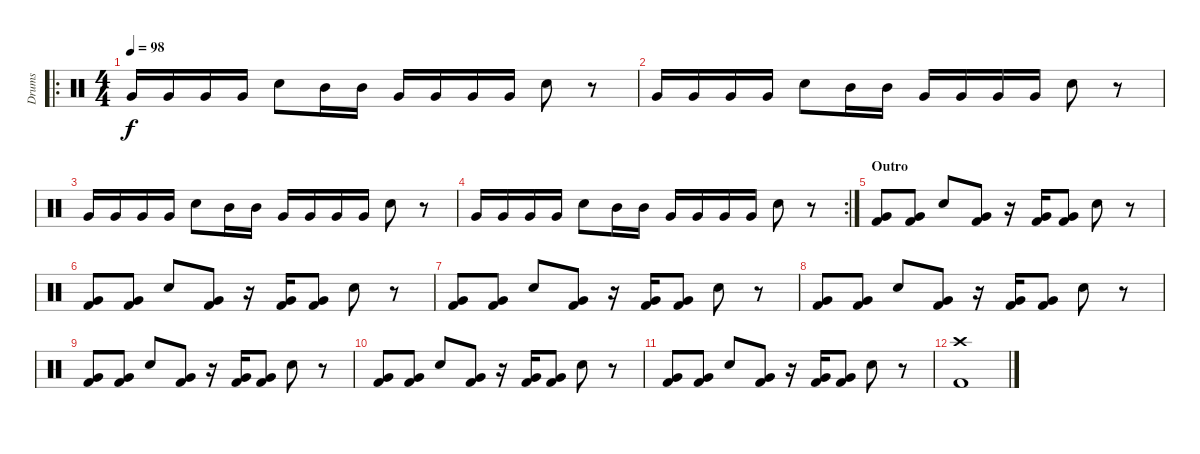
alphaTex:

\track ("Drums" "Drums") {instrument percussion}
\staff {score}
\articulation defaults
\ro
\ts (4 4)
\tempo 98
\clef neutral
\ks c "Very Low Tom (hit)".16{dy f} "Very Low Tom (hit)".16 "Very Low Tom (hit)".16 "Very Low Tom (hit)".16 "Electric Snare (hit)".8 "Mid Tom (hit)".16 "Mid Tom (hit)".16 "Very Low Tom (hit)".16 "Very Low Tom (hit)".16 "Very Low Tom (hit)".16 "Very Low Tom (hit)".16 "Electric Snare (hit)".8
r.8 |
"Very Low Tom (hit)".16 "Very Low Tom (hit)".16 "Very Low Tom (hit)".16 "Very Low Tom (hit)".16 "Electric Snare (hit)".8 "Mid Tom (hit)".16 "Mid Tom (hit)".16 "Very Low Tom (hit)".16 "Very Low Tom (hit)".16 "Very Low Tom (hit)".16 "Very Low Tom (hit)".16 "Electric Snare (hit)".8 r.8 |
"Very Low Tom (hit)".16 "Very Low Tom (hit)".16 "Very Low Tom (hit)".16 "Very Low Tom (hit)".16 "Electric Snare (hit)".8 "Mid Tom (hit)".16 "Mid Tom (hit)".16 "Very Low Tom (hit)".16 "Very Low Tom (hit)".16 "Very Low Tom (hit)".16 "Very Low Tom (hit)".16 "Electric Snare (hit)".8 r.8 |
\rc 2 "Very Low Tom (hit)".16 "Very Low Tom (hit)".16 "Very Low Tom (hit)".16 "Very Low Tom (hit)".16 "Electric Snare (hit)".8 "Mid Tom (hit)".16 "Mid Tom (hit)".16 "Very Low Tom (hit)".16 "Very Low Tom (hit)".16 "Very Low Tom (hit)".16 "Very Low Tom (hit)".16 "Electric Snare (hit)".8
r.8 |
\section ("" "Outro")
("Very Low Tom (hit)" "Kick (hit) 2").8 ("Very Low Tom (hit)" "Kick (hit) 2").8 "Electric Snare (hit)".8 ("Very Low Tom (hit)" "Kick (hit) 2").8 r.16 ("Very Low Tom (hit)" "Kick (hit) 2").16 ("Very Low Tom (hit)" "Kick (hit) 2").8 "Electric Snare (hit)".8 r.8 |
("Very Low Tom (hit)" "Kick (hit) 2").8 ("Very Low Tom (hit)" "Kick (hit) 2").8 "Electric Snare (hit)".8 ("Very Low Tom (hit)" "Kick (hit) 2").8 r.16 ("Very Low Tom (hit)" "Kick (hit) 2").16 ("Very Low Tom (hit)" "Kick (hit) 2").8 "Electric Snare (hit)".8 r.8 |
("Very Low Tom (hit)" "Kick (hit) 2").8 ("Very Low Tom (hit)" "Kick (hit) 2").8 "Electric Snare (hit)".8 ("Very Low Tom (hit)" "Kick (hit) 2").8 r.16 ("Very Low Tom (hit)" "Kick (hit) 2").16 ("Very Low Tom (hit)" "Kick (hit) 2").8 "Electric Snare (hit)".8 r.8 |
("Very Low Tom (hit)" "Kick (hit) 2").8 ("Very Low Tom (hit)" "Kick (hit) 2").8 "Electric Snare (hit)".8 ("Very Low Tom (hit)" "Kick (hit) 2").8 r.16 ("Very Low Tom (hit)" "Kick (hit) 2").16 ("Very Low Tom (hit)" "Kick (hit) 2").8 "Electric Snare (hit)".8 r.8 |
("Very Low Tom (hit)" "Kick (hit) 2").8 ("Very Low Tom (hit)" "Kick (hit) 2").8 "Electric Snare (hit)".8 ("Very Low Tom (hit)" "Kick (hit) 2").8 r.16 ("Very Low Tom (hit)" "Kick (hit) 2").16 ("Very Low Tom (hit)" "Kick (hit) 2").8 "Electric Snare (hit)".8 r.8 |
("Very Low Tom (hit)" "Kick (hit) 2").8 ("Very Low Tom (hit)" "Kick (hit) 2").8 "Electric Snare (hit)".8 ("Very Low Tom (hit)" "Kick (hit) 2").8 r.16 ("Very Low Tom (hit)" "Kick (hit) 2").16 ("Very Low Tom (hit)" "Kick (hit) 2").8 "Electric Snare (hit)".8 r.8 |
("Very Low Tom (hit)" "Kick (hit) 2").8 ("Very Low Tom (hit)" "Kick (hit) 2").8 "Electric Snare (hit)".8 ("Very Low Tom (hit)" "Kick (hit) 2").8 r.16 ("Very Low Tom (hit)" "Kick (hit) 2").16 ("Very Low Tom (hit)" "Kick (hit) 2").8 "Electric Snare (hit)".8 r.8 |
("Crash high (hit)" "Kick (hit) 2").1
